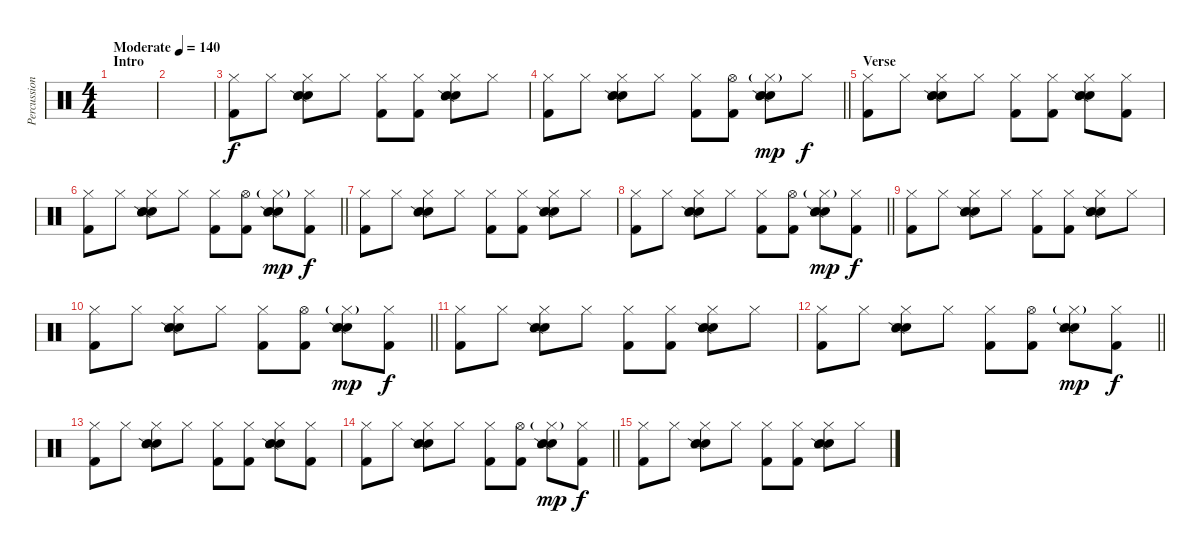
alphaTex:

\track ("Percussion" "Percussion") {instrument percussion}
\staff {score}
\articulation defaults
\ts (4 4)
\section ("" "Intro")
\tempo (140 "Moderate")
\clef neutral
\ks c
|
|
("Hi-Hat (closed)" "Kick (hit) 2").8 "Hi-Hat (closed)".8 ("Hi-Hat (closed)" "Hand Clap (hit)" "Electric Snare (hit)" "Snare (side stick) 2").8 "Hi-Hat (closed)".8 ("Hi-Hat (closed)" "Kick (hit) 2").8 ("Hi-Hat (closed)" "Kick (hit) 2").8 ("Hi-Hat (closed)" "Hand Clap (hit)" "Electric Snare (hit)" "Snare (side stick) 2").8 "Hi-Hat (closed)".8 |
\barLineRight lightlight
("Hi-Hat (closed)" "Kick (hit) 2").8 "Hi-Hat (closed)".8 ("Hi-Hat (closed)" "Hand Clap (hit)" "Electric Snare (hit)" "Snare (side stick) 2").8 "Hi-Hat (closed)".8 ("Hi-Hat (closed)" "Kick (hit) 2").8 ("Hi-Hat (open)" "Kick (hit) 2").8 ("Hi-Hat (closed)"{g} "Hand Clap (hit)" "Electric Snare (hit)" "Snare (side stick) 2").8{dy mp} "Hi-Hat (closed)".8{dy f} |
\section ("" "Verse")
("Hi-Hat (closed)" "Kick (hit) 2").8 "Hi-Hat (closed)".8 ("Hi-Hat (closed)" "Hand Clap (hit)" "Electric Snare (hit)" "Snare (side stick) 2").8 "Hi-Hat (closed)".8 ("Hi-Hat (closed)" "Kick (hit) 2").8 ("Hi-Hat (closed)" "Kick (hit) 2").8 ("Hi-Hat (closed)" "Hand Clap (hit)" "Electric Snare (hit)" "Snare (side stick) 2").8 ("Hi-Hat (closed)" "Kick (hit) 2").8 |
\barLineRight lightlight
("Hi-Hat (closed)" "Kick (hit) 2").8 "Hi-Hat (closed)".8 ("Hi-Hat (closed)" "Hand Clap (hit)" "Electric Snare (hit)" "Snare (side stick) 2").8 "Hi-Hat (closed)".8 ("Hi-Hat (closed)" "Kick (hit) 2").8 ("Hi-Hat (open)" "Kick (hit) 2").8 ("Hi-Hat (closed)"{g} "Hand Clap (hit)" "Electric Snare (hit)" "Snare (side stick) 2").8{dy mp} ("Hi-Hat (closed)" "Kick (hit) 2").8{dy f} |
("Hi-Hat (closed)" "Kick (hit) 2").8 "Hi-Hat (closed)".8 ("Hi-Hat (closed)" "Hand Clap (hit)" "Electric Snare (hit)" "Snare (side stick) 2").8 "Hi-Hat (closed)".8 ("Hi-Hat (closed)" "Kick (hit) 2").8 ("Hi-Hat (closed)" "Kick (hit) 2").8 ("Hi-Hat (closed)" "Hand Clap (hit)" "Electric Snare (hit)" "Snare (side stick) 2").8 "Hi-Hat (closed)".8 |
\barLineRight lightlight
("Hi-Hat (closed)" "Kick (hit) 2").8 "Hi-Hat (closed)".8 ("Hi-Hat (closed)" "Hand Clap (hit)" "Electric Snare (hit)" "Snare (side stick) 2").8 "Hi-Hat (closed)".8 ("Hi-Hat (closed)" "Kick (hit) 2").8 ("Hi-Hat (open)" "Kick (hit) 2").8 ("Hi-Hat (closed)"{g} "Hand Clap (hit)" "Electric Snare (hit)" "Snare (side stick) 2").8{dy mp} ("Hi-Hat (closed)" "Kick (hit) 2").8{dy f} |
("Hi-Hat (closed)" "Kick (hit) 2").8 "Hi-Hat (closed)".8 ("Hi-Hat (closed)" "Hand Clap (hit)" "Electric Snare (hit)" "Snare (side stick) 2").8 "Hi-Hat (closed)".8 ("Hi-Hat (closed)" "Kick (hit) 2").8 ("Hi-Hat (closed)" "Kick (hit) 2").8 ("Hi-Hat (closed)" "Hand Clap (hit)" "Electric Snare (hit)" "Snare (side stick) 2").8 "Hi-Hat (closed)".8 |
\barLineRight lightlight
("Hi-Hat (closed)" "Kick (hit) 2").8 "Hi-Hat (closed)".8 ("Hi-Hat (closed)" "Hand Clap (hit)" "Electric Snare (hit)" "Snare (side stick) 2").8 "Hi-Hat (closed)".8 ("Hi-Hat (closed)" "Kick (hit) 2").8 ("Hi-Hat (open)" "Kick (hit) 2").8 ("Hi-Hat (closed)"{g} "Hand Clap (hit)" "Electric Snare (hit)" "Snare (side stick) 2").8{dy mp} ("Hi-Hat (closed)" "Kick (hit) 2").8{dy f} |
("Hi-Hat (closed)" "Kick (hit) 2").8 "Hi-Hat (closed)".8 ("Hi-Hat (closed)" "Hand Clap (hit)" "Electric Snare (hit)" "Snare (side stick) 2").8 "Hi-Hat (closed)".8 ("Hi-Hat (closed)" "Kick (hit) 2").8 ("Hi-Hat (closed)" "Kick (hit) 2").8 ("Hi-Hat (closed)" "Hand Clap (hit)" "Electric Snare (hit)" "Snare (side stick) 2").8 "Hi-Hat (closed)".8 |
\barLineRight lightlight
("Hi-Hat (closed)" "Kick (hit) 2").8 "Hi-Hat (closed)".8 ("Hi-Hat (closed)" "Hand Clap (hit)" "Electric Snare (hit)" "Snare (side stick) 2").8 "Hi-Hat (closed)".8 ("Hi-Hat (closed)" "Kick (hit) 2").8 ("Hi-Hat (open)" "Kick (hit) 2").8 ("Hi-Hat (closed)"{g} "Hand Clap (hit)" "Electric Snare (hit)" "Snare (side stick) 2").8{dy mp} ("Hi-Hat (closed)" "Kick (hit) 2").8{dy f} |
("Hi-Hat (closed)" "Kick (hit) 2").8 "Hi-Hat (closed)".8 ("Hi-Hat (closed)" "Hand Clap (hit)" "Electric Snare (hit)" "Snare (side stick) 2").8 "Hi-Hat (closed)".8 ("Hi-Hat (closed)" "Kick (hit) 2").8 ("Hi-Hat (closed)" "Kick (hit) 2").8 ("Hi-Hat (closed)" "Hand Clap (hit)" "Electric Snare (hit)" "Snare (side stick) 2").8 ("Hi-Hat (closed)" "Kick (hit) 2").8 |
\barLineRight lightlight
("Hi-Hat (closed)" "Kick (hit) 2").8 "Hi-Hat (closed)".8 ("Hi-Hat (closed)" "Hand Clap (hit)" "Electric Snare (hit)" "Snare (side stick) 2").8 "Hi-Hat (closed)".8 ("Hi-Hat (closed)" "Kick (hit) 2").8 ("Hi-Hat (open)" "Kick (hit) 2").8 ("Hi-Hat (closed)"{g} "Hand Clap (hit)" "Electric Snare (hit)" "Snare (side stick) 2").8{dy mp} ("Hi-Hat (closed)" "Kick (hit) 2").8{dy f} |
("Hi-Hat (closed)" "Kick (hit) 2").8 "Hi-Hat (closed)".8 ("Hi-Hat (closed)" "Hand Clap (hit)" "Electric Snare (hit)" "Snare (side stick) 2").8 "Hi-Hat (closed)".8 ("Hi-Hat (closed)" "Kick (hit) 2").8 ("Hi-Hat (closed)" "Kick (hit) 2").8 ("Hi-Hat (closed)" "Hand Clap (hit)" "Electric Snare (hit)" "Snare (side stick) 2").8 "Hi-Hat (closed)".8
